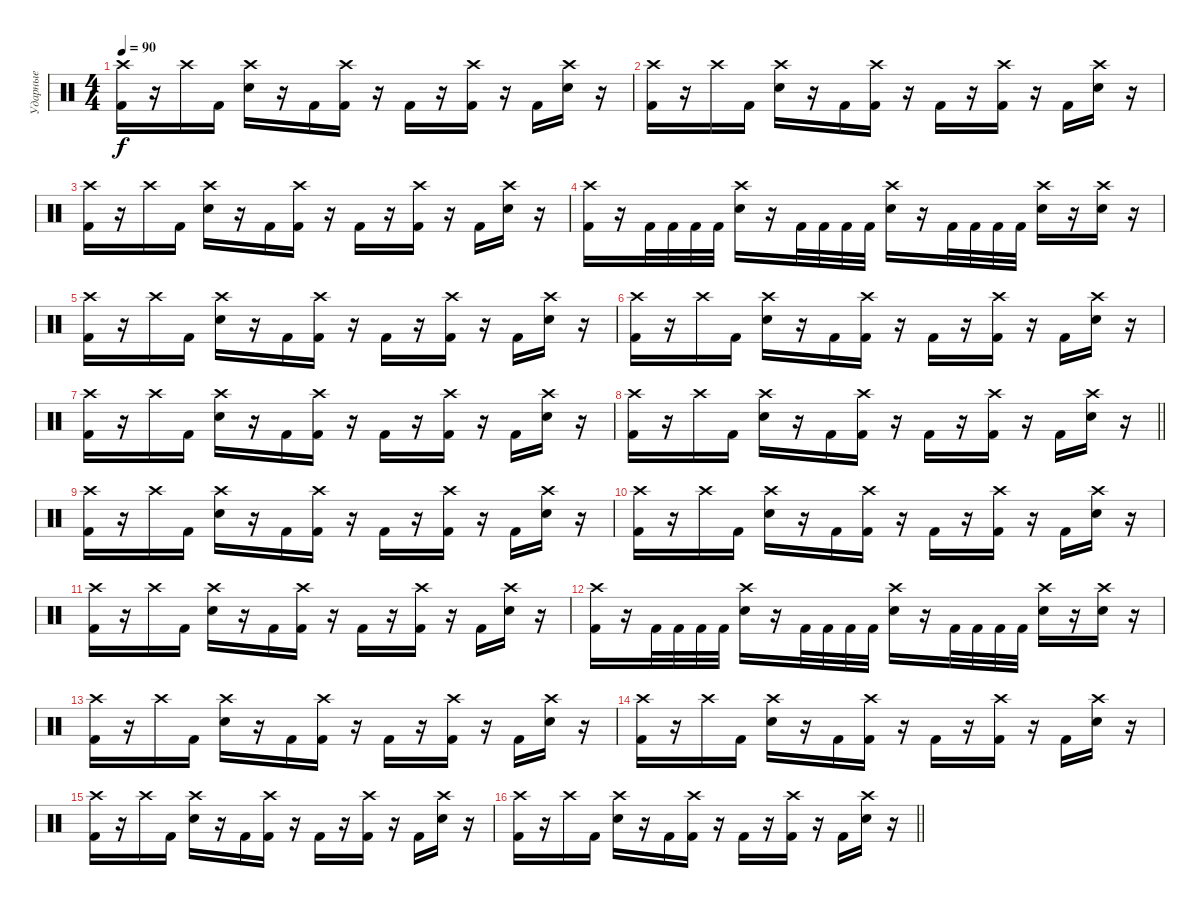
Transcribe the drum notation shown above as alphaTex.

\track ("Ударные" "Ударные") {instrument percussion}
\staff {score}
\articulation defaults
\ts (4 4)
\section ("" "")
\tempo 90
\clef neutral
\ks c
("Crash high (hit)" "Kick (hit) 2").16{dy f} r.16 "Crash high (hit)".16 "Kick (hit) 2".16 ("Crash high (hit)" "Electric Snare (hit)").16 r.16 "Kick (hit) 2".16 ("Crash high (hit)" "Kick (hit) 2").16 r.16 "Kick (hit) 2".16 r.16 ("Crash high (hit)" "Kick (hit) 2").16 r.16 "Kick (hit) 2".16 ("Crash high (hit)" "Electric Snare (hit)").16 r.16 |
("Crash high (hit)" "Kick (hit) 2").16 r.16 "Crash high (hit)".16 "Kick (hit) 2".16 ("Crash high (hit)" "Electric Snare (hit)").16 r.16 "Kick (hit) 2".16 ("Crash high (hit)" "Kick (hit) 2").16 r.16 "Kick (hit) 2".16 r.16 ("Crash high (hit)" "Kick (hit) 2").16 r.16 "Kick (hit) 2".16 ("Crash high (hit)" "Electric Snare (hit)").16 r.16 |
("Crash high (hit)" "Kick (hit) 2").16 r.16 "Crash high (hit)".16 "Kick (hit) 2".16 ("Crash high (hit)" "Electric Snare (hit)").16 r.16 "Kick (hit) 2".16 ("Crash high (hit)" "Kick (hit) 2").16 r.16 "Kick (hit) 2".16 r.16 ("Crash high (hit)" "Kick (hit) 2").16 r.16 "Kick (hit) 2".16 ("Crash high (hit)" "Electric Snare (hit)").16 r.16 |
("Crash high (hit)" "Kick (hit) 2").16 r.16 "Kick (hit) 2".32 "Kick (hit) 2".32 "Kick (hit) 2".32 "Kick (hit) 2".32 ("Crash high (hit)" "Electric Snare (hit)").16 r.16 "Kick (hit) 2".32 "Kick (hit) 2".32 "Kick (hit) 2".32 "Kick (hit) 2".32 ("Crash high (hit)" "Electric Snare (hit)").16 r.16 "Kick (hit) 2".32 "Kick (hit) 2".32 "Kick (hit) 2".32 "Kick (hit) 2".32 ("Crash high (hit)" "Electric Snare (hit)").16 r.16 ("Crash high (hit)" "Electric Snare (hit)").16 r.16 |
("Crash high (hit)" "Kick (hit) 2").16 r.16 "Crash high (hit)".16 "Kick (hit) 2".16 ("Crash high (hit)" "Electric Snare (hit)").16 r.16 "Kick (hit) 2".16 ("Crash high (hit)" "Kick (hit) 2").16 r.16 "Kick (hit) 2".16 r.16 ("Crash high (hit)" "Kick (hit) 2").16 r.16 "Kick (hit) 2".16 ("Crash high (hit)" "Electric Snare (hit)").16 r.16 |
("Crash high (hit)" "Kick (hit) 2").16 r.16 "Crash high (hit)".16 "Kick (hit) 2".16 ("Crash high (hit)" "Electric Snare (hit)").16 r.16 "Kick (hit) 2".16 ("Crash high (hit)" "Kick (hit) 2").16 r.16 "Kick (hit) 2".16 r.16 ("Crash high (hit)" "Kick (hit) 2").16 r.16 "Kick (hit) 2".16 ("Crash high (hit)" "Electric Snare (hit)").16 r.16 |
("Crash high (hit)" "Kick (hit) 2").16 r.16 "Crash high (hit)".16 "Kick (hit) 2".16 ("Crash high (hit)" "Electric Snare (hit)").16 r.16 "Kick (hit) 2".16 ("Crash high (hit)" "Kick (hit) 2").16 r.16 "Kick (hit) 2".16 r.16 ("Crash high (hit)" "Kick (hit) 2").16 r.16 "Kick (hit) 2".16 ("Crash high (hit)" "Electric Snare (hit)").16 r.16 |
\barLineRight lightlight
("Crash high (hit)" "Kick (hit) 2").16 r.16 "Crash high (hit)".16 "Kick (hit) 2".16 ("Crash high (hit)" "Electric Snare (hit)").16 r.16 "Kick (hit) 2".16 ("Crash high (hit)" "Kick (hit) 2").16 r.16 "Kick (hit) 2".16 r.16 ("Crash high (hit)" "Kick (hit) 2").16 r.16 "Kick (hit) 2".16 ("Crash high (hit)" "Electric Snare (hit)").16 r.16 |
("Crash high (hit)" "Kick (hit) 2").16 r.16 "Crash high (hit)".16 "Kick (hit) 2".16 ("Crash high (hit)" "Electric Snare (hit)").16 r.16 "Kick (hit) 2".16 ("Crash high (hit)" "Kick (hit) 2").16 r.16 "Kick (hit) 2".16 r.16 ("Crash high (hit)" "Kick (hit) 2").16 r.16 "Kick (hit) 2".16 ("Crash high (hit)" "Electric Snare (hit)").16 r.16 |
("Crash high (hit)" "Kick (hit) 2").16 r.16 "Crash high (hit)".16 "Kick (hit) 2".16 ("Crash high (hit)" "Electric Snare (hit)").16 r.16 "Kick (hit) 2".16 ("Crash high (hit)" "Kick (hit) 2").16 r.16 "Kick (hit) 2".16 r.16 ("Crash high (hit)" "Kick (hit) 2").16 r.16 "Kick (hit) 2".16 ("Crash high (hit)" "Electric Snare (hit)").16 r.16 |
("Crash high (hit)" "Kick (hit) 2").16 r.16 "Crash high (hit)".16 "Kick (hit) 2".16 ("Crash high (hit)" "Electric Snare (hit)").16 r.16 "Kick (hit) 2".16 ("Crash high (hit)" "Kick (hit) 2").16 r.16 "Kick (hit) 2".16 r.16 ("Crash high (hit)" "Kick (hit) 2").16 r.16 "Kick (hit) 2".16 ("Crash high (hit)" "Electric Snare (hit)").16 r.16 |
("Crash high (hit)" "Kick (hit) 2").16 r.16 "Kick (hit) 2".32 "Kick (hit) 2".32 "Kick (hit) 2".32 "Kick (hit) 2".32 ("Crash high (hit)" "Electric Snare (hit)").16 r.16 "Kick (hit) 2".32 "Kick (hit) 2".32 "Kick (hit) 2".32 "Kick (hit) 2".32 ("Crash high (hit)" "Electric Snare (hit)").16 r.16 "Kick (hit) 2".32 "Kick (hit) 2".32 "Kick (hit) 2".32 "Kick (hit) 2".32 ("Crash high (hit)" "Electric Snare (hit)").16 r.16 ("Crash high (hit)" "Electric Snare (hit)").16 r.16 |
("Crash high (hit)" "Kick (hit) 2").16 r.16 "Crash high (hit)".16 "Kick (hit) 2".16 ("Crash high (hit)" "Electric Snare (hit)").16 r.16 "Kick (hit) 2".16 ("Crash high (hit)" "Kick (hit) 2").16 r.16 "Kick (hit) 2".16 r.16 ("Crash high (hit)" "Kick (hit) 2").16 r.16 "Kick (hit) 2".16 ("Crash high (hit)" "Electric Snare (hit)").16 r.16 |
("Crash high (hit)" "Kick (hit) 2").16 r.16 "Crash high (hit)".16 "Kick (hit) 2".16 ("Crash high (hit)" "Electric Snare (hit)").16 r.16 "Kick (hit) 2".16 ("Crash high (hit)" "Kick (hit) 2").16 r.16 "Kick (hit) 2".16 r.16 ("Crash high (hit)" "Kick (hit) 2").16 r.16 "Kick (hit) 2".16 ("Crash high (hit)" "Electric Snare (hit)").16 r.16 |
("Crash high (hit)" "Kick (hit) 2").16 r.16 "Crash high (hit)".16 "Kick (hit) 2".16 ("Crash high (hit)" "Electric Snare (hit)").16 r.16 "Kick (hit) 2".16 ("Crash high (hit)" "Kick (hit) 2").16 r.16 "Kick (hit) 2".16 r.16 ("Crash high (hit)" "Kick (hit) 2").16 r.16 "Kick (hit) 2".16 ("Crash high (hit)" "Electric Snare (hit)").16 r.16 |
\barLineRight lightlight
("Crash high (hit)" "Kick (hit) 2").16 r.16 "Crash high (hit)".16 "Kick (hit) 2".16 ("Crash high (hit)" "Electric Snare (hit)").16 r.16 "Kick (hit) 2".16 ("Crash high (hit)" "Kick (hit) 2").16 r.16 "Kick (hit) 2".16 r.16 ("Crash high (hit)" "Kick (hit) 2").16 r.16 "Kick (hit) 2".16 ("Crash high (hit)" "Electric Snare (hit)").16 r.16
